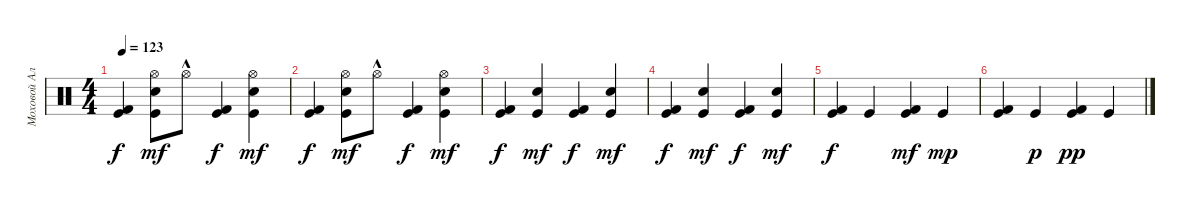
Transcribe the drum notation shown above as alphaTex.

\track ("Moxoвой Алексей" "Moxoвой Ал") {instrument percussion}
\staff {score}
\articulation defaults
\ts (4 4)
\tempo 123
\clef neutral
\ks c
("Kick (hit) 2" "Kick (hit)").4{dy f} ("Kick (hit)" "Hand Clap (hit)" "Hi-Hat (open)").8{dy mf} "Hi-Hat (open)"{hac}.8 ("Kick (hit) 2" "Kick (hit)").4{dy f} ("Hand Clap (hit)" "Kick (hit)" "Hi-Hat (open)").4{dy mf} |
("Kick (hit) 2" "Kick (hit)").4{dy f} ("Kick (hit)" "Hand Clap (hit)" "Hi-Hat (open)").8{dy mf} "Hi-Hat (open)"{hac}.8 ("Kick (hit) 2" "Kick (hit)").4{dy f} ("Kick (hit)" "Hand Clap (hit)" "Hi-Hat (open)").4{dy mf} |
("Kick (hit) 2" "Kick (hit)").4{dy f} ("Kick (hit)" "Hand Clap (hit)").4{dy mf} ("Kick (hit) 2" "Kick (hit)").4{dy f} ("Kick (hit)" "Hand Clap (hit)").4{dy mf} |
("Kick (hit)" "Kick (hit) 2").4{dy f} ("Kick (hit)" "Hand Clap (hit)").4{dy mf} ("Kick (hit)" "Kick (hit) 2").4{dy f} ("Hand Clap (hit)" "Kick (hit)").4{dy mf} |
("Kick (hit)" "Kick (hit) 2").4{dy f} "Kick (hit)".4 ("Kick (hit)" "Kick (hit) 2").4{dy mf} "Kick (hit)".4{dy mp} |
("Kick (hit) 2" "Kick (hit)").4 "Kick (hit)".4{dy p} ("Kick (hit) 2" "Kick (hit)").4{dy pp} "Kick (hit)".4
